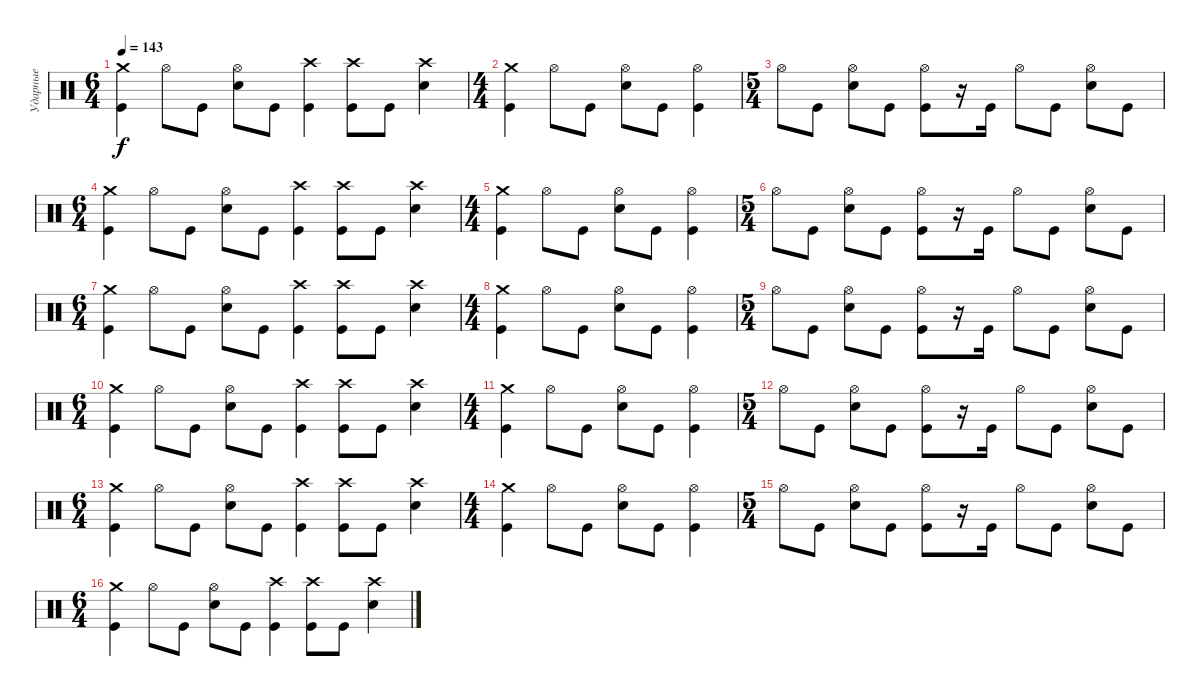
\track ("Ударные" "Ударные") {instrument percussion}
\staff {score}
\articulation defaults
\ts (6 4)
\tempo 143
\clef neutral
\ks c
("Crash medium (hit)" "Kick (hit)").4{dy f} "Hi-Hat (open)".8 "Kick (hit)".8 ("Hi-Hat (open)" "Electric Snare (hit)").8 "Kick (hit)".8 ("Crash high (hit)" "Kick (hit)").4 ("Crash high (hit)" "Kick (hit)").8 "Kick (hit)".8 ("Crash high (hit)" "Electric Snare (hit)").4 |
\ts (4 4)
("Crash medium (hit)" "Kick (hit)").4 "Hi-Hat (open)".8 "Kick (hit)".8 ("Hi-Hat (open)" "Electric Snare (hit)").8 "Kick (hit)".8 ("Hi-Hat (open)" "Kick (hit)").4 |
\ts (5 4)
"Hi-Hat (open)".8 "Kick (hit)".8 ("Hi-Hat (open)" "Electric Snare (hit)").8 "Kick (hit)".8 ("Hi-Hat (open)" "Kick (hit)").8 r.16 "Kick (hit)".16 "Hi-Hat (open)".8 "Kick (hit)".8 ("Hi-Hat (open)" "Electric Snare (hit)").8 "Kick (hit)".8 |
\ts (6 4)
("Crash medium (hit)" "Kick (hit)").4 "Hi-Hat (open)".8 "Kick (hit)".8 ("Hi-Hat (open)" "Electric Snare (hit)").8 "Kick (hit)".8 ("Crash high (hit)" "Kick (hit)").4 ("Crash high (hit)" "Kick (hit)").8 "Kick (hit)".8 ("Crash high (hit)" "Electric Snare (hit)").4 |
\ts (4 4)
("Crash medium (hit)" "Kick (hit)").4 "Hi-Hat (open)".8 "Kick (hit)".8 ("Hi-Hat (open)" "Electric Snare (hit)").8 "Kick (hit)".8 ("Hi-Hat (open)" "Kick (hit)").4 |
\ts (5 4)
"Hi-Hat (open)".8 "Kick (hit)".8 ("Hi-Hat (open)" "Electric Snare (hit)").8 "Kick (hit)".8 ("Hi-Hat (open)" "Kick (hit)").8 r.16 "Kick (hit)".16 "Hi-Hat (open)".8 "Kick (hit)".8 ("Hi-Hat (open)" "Electric Snare (hit)").8 "Kick (hit)".8 |
\ts (6 4)
("Crash medium (hit)" "Kick (hit)").4 "Hi-Hat (open)".8 "Kick (hit)".8 ("Hi-Hat (open)" "Electric Snare (hit)").8 "Kick (hit)".8 ("Crash high (hit)" "Kick (hit)").4 ("Crash high (hit)" "Kick (hit)").8 "Kick (hit)".8 ("Crash high (hit)" "Electric Snare (hit)").4 |
\ts (4 4)
("Crash medium (hit)" "Kick (hit)").4 "Hi-Hat (open)".8 "Kick (hit)".8 ("Hi-Hat (open)" "Electric Snare (hit)").8 "Kick (hit)".8 ("Hi-Hat (open)" "Kick (hit)").4 |
\ts (5 4)
"Hi-Hat (open)".8 "Kick (hit)".8 ("Hi-Hat (open)" "Electric Snare (hit)").8 "Kick (hit)".8 ("Hi-Hat (open)" "Kick (hit)").8 r.16 "Kick (hit)".16 "Hi-Hat (open)".8 "Kick (hit)".8 ("Hi-Hat (open)" "Electric Snare (hit)").8 "Kick (hit)".8 |
\ts (6 4)
("Crash medium (hit)" "Kick (hit)").4 "Hi-Hat (open)".8 "Kick (hit)".8 ("Hi-Hat (open)" "Electric Snare (hit)").8 "Kick (hit)".8 ("Crash high (hit)" "Kick (hit)").4 ("Crash high (hit)" "Kick (hit)").8 "Kick (hit)".8 ("Crash high (hit)" "Electric Snare (hit)").4 |
\ts (4 4)
("Crash medium (hit)" "Kick (hit)").4 "Hi-Hat (open)".8 "Kick (hit)".8 ("Hi-Hat (open)" "Electric Snare (hit)").8 "Kick (hit)".8 ("Hi-Hat (open)" "Kick (hit)").4 |
\ts (5 4)
"Hi-Hat (open)".8 "Kick (hit)".8 ("Hi-Hat (open)" "Electric Snare (hit)").8 "Kick (hit)".8 ("Hi-Hat (open)" "Kick (hit)").8 r.16 "Kick (hit)".16 "Hi-Hat (open)".8 "Kick (hit)".8 ("Hi-Hat (open)" "Electric Snare (hit)").8 "Kick (hit)".8 |
\ts (6 4)
("Crash medium (hit)" "Kick (hit)").4 "Hi-Hat (open)".8 "Kick (hit)".8 ("Hi-Hat (open)" "Electric Snare (hit)").8 "Kick (hit)".8 ("Crash high (hit)" "Kick (hit)").4 ("Crash high (hit)" "Kick (hit)").8 "Kick (hit)".8 ("Crash high (hit)" "Electric Snare (hit)").4 |
\ts (4 4)
("Crash medium (hit)" "Kick (hit)").4 "Hi-Hat (open)".8 "Kick (hit)".8 ("Hi-Hat (open)" "Electric Snare (hit)").8 "Kick (hit)".8 ("Hi-Hat (open)" "Kick (hit)").4 |
\ts (5 4)
"Hi-Hat (open)".8 "Kick (hit)".8 ("Hi-Hat (open)" "Electric Snare (hit)").8 "Kick (hit)".8 ("Hi-Hat (open)" "Kick (hit)").8 r.16 "Kick (hit)".16 "Hi-Hat (open)".8 "Kick (hit)".8 ("Hi-Hat (open)" "Electric Snare (hit)").8 "Kick (hit)".8 |
\ts (6 4)
("Crash medium (hit)" "Kick (hit)").4 "Hi-Hat (open)".8 "Kick (hit)".8 ("Hi-Hat (open)" "Electric Snare (hit)").8 "Kick (hit)".8 ("Crash high (hit)" "Kick (hit)").4 ("Crash high (hit)" "Kick (hit)").8 "Kick (hit)".8 ("Crash high (hit)" "Electric Snare (hit)").4
